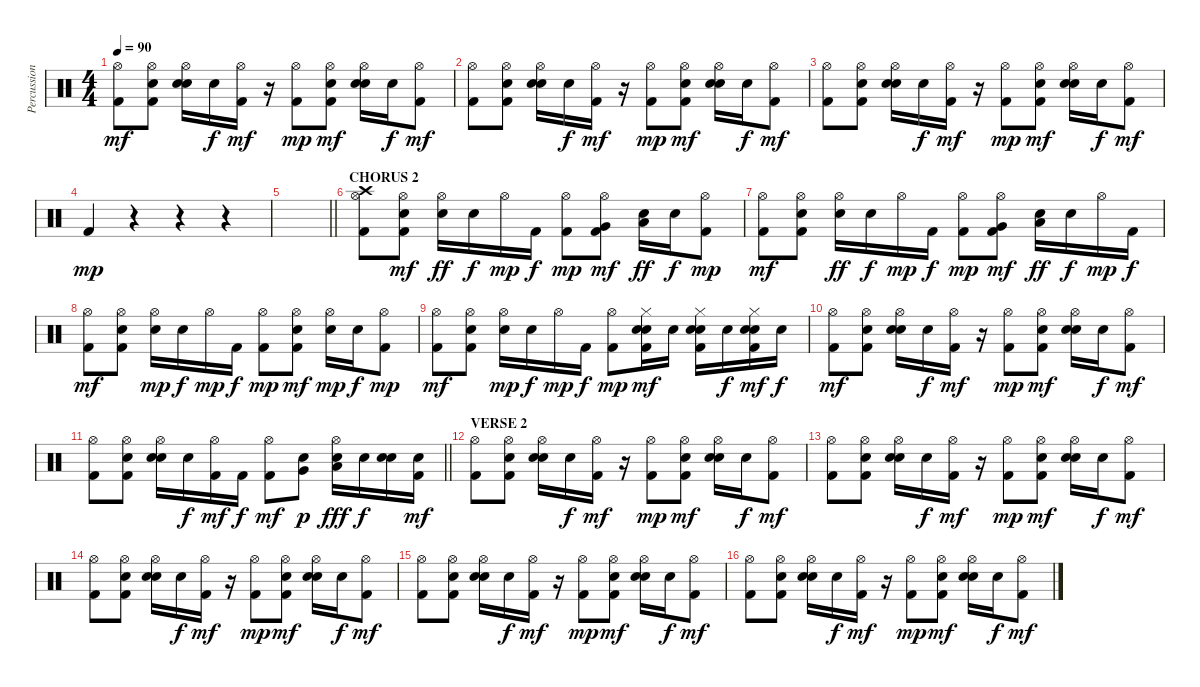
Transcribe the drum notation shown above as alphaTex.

\track ("Percussion" "Percussion") {instrument percussion}
\staff {score}
\articulation defaults
\ts (4 4)
\tempo 90
\clef neutral
\ks c
("Hi-Hat (open)" "Kick (hit) 2").8{dy mf} ("Hi-Hat (open)" "Snare (hit) 2" "Kick (hit) 2").8 ("Hi-Hat (open)" "Electric Snare (hit)" "Snare (hit) 2").16 "Snare (hit) 2".16{dy f} ("Hi-Hat (open)" "Kick (hit) 2").16{dy mf} r.16 ("Hi-Hat (open)" "Kick (hit) 2").8{dy mp} ("Hi-Hat (open)" "Snare (hit) 2" "Kick (hit) 2").8{dy mf} ("Hi-Hat (open)" "Electric Snare (hit)" "Snare (hit) 2").16 "Snare (hit) 2".16{dy f} ("Hi-Hat (open)" "Kick (hit) 2").8{dy mf} |
("Hi-Hat (open)" "Kick (hit) 2").8 ("Hi-Hat (open)" "Snare (hit) 2" "Kick (hit) 2").8 ("Hi-Hat (open)" "Electric Snare (hit)" "Snare (hit) 2").16 "Snare (hit) 2".16{dy f} ("Hi-Hat (open)" "Kick (hit) 2").16{dy mf} r.16 ("Hi-Hat (open)" "Kick (hit) 2").8{dy mp} ("Hi-Hat (open)" "Snare (hit) 2" "Kick (hit) 2").8{dy mf} ("Hi-Hat (open)" "Electric Snare (hit)" "Snare (hit) 2").16 "Snare (hit) 2".16{dy f} ("Hi-Hat (open)" "Kick (hit) 2").8{dy mf} |
("Hi-Hat (open)" "Kick (hit) 2").8 ("Hi-Hat (open)" "Snare (hit) 2" "Kick (hit) 2").8 ("Hi-Hat (open)" "Electric Snare (hit)" "Snare (hit) 2").16 "Snare (hit) 2".16{dy f} ("Hi-Hat (open)" "Kick (hit) 2").16{dy mf} r.16 ("Hi-Hat (open)" "Kick (hit) 2").8{dy mp} ("Hi-Hat (open)" "Snare (hit) 2" "Kick (hit) 2").8{dy mf} ("Hi-Hat (open)" "Electric Snare (hit)" "Snare (hit) 2").16 "Snare (hit) 2".16{dy f} ("Hi-Hat (open)" "Kick (hit) 2").8{dy mf} |
"Kick (hit) 2".4{dy mp} r.4 r.4 r.4 |
\barLineRight lightlight
|
\section ("" "CHORUS 2")
("Hi-Hat (open)" "Crash high (hit)" "Kick (hit) 2").8 ("Hi-Hat (open)" "Snare (hit) 2" "Kick (hit) 2").8{dy mf} ("Hi-Hat (open)" "Snare (hit) 2").16{dy ff} "Snare (hit) 2".16{dy f} "Hi-Hat (open)".16{dy mp} "Kick (hit) 2".16{dy f} ("Hi-Hat (open)" "Kick (hit) 2").8{dy mp} ("Hi-Hat (open)" "Very Low Tom (hit)" "Kick (hit) 2").8{dy mf} ("Low Floor Tom (hit)" "Snare (hit) 2").16{dy ff} "Snare (hit) 2".16{dy f} ("Hi-Hat (open)" "Kick (hit) 2").8{dy mp} |
("Hi-Hat (open)" "Kick (hit) 2").8{dy mf} ("Hi-Hat (open)" "Snare (hit) 2" "Kick (hit) 2").8 ("Hi-Hat (open)" "Snare (hit) 2").16{dy ff} "Snare (hit) 2".16{dy f} "Hi-Hat (open)".16{dy mp} "Kick (hit) 2".16{dy f} ("Hi-Hat (open)" "Kick (hit) 2").8{dy mp} ("Hi-Hat (open)" "Very Low Tom (hit)" "Kick (hit) 2").8{dy mf} ("Low Floor Tom (hit)" "Snare (hit) 2").16{dy ff} "Snare (hit) 2".16{dy f} "Hi-Hat (open)".16{dy mp} "Kick (hit) 2".16{dy f} |
("Hi-Hat (open)" "Kick (hit) 2").8{dy mf} ("Hi-Hat (open)" "Snare (hit) 2" "Kick (hit) 2").8 ("Hi-Hat (open)" "Snare (hit) 2").16{dy mp} "Snare (hit) 2".16{dy f} "Hi-Hat (open)".16{dy mp} "Kick (hit) 2".16{dy f} ("Hi-Hat (open)" "Kick (hit) 2").8{dy mp} ("Hi-Hat (open)" "Snare (hit) 2" "Kick (hit) 2").8{dy mf} ("Hi-Hat (open)" "Snare (hit) 2").16{dy mp} "Snare (hit) 2".16{dy f} ("Hi-Hat (open)" "Kick (hit) 2").8{dy mp} |
("Hi-Hat (open)" "Kick (hit) 2").8{dy mf} ("Hi-Hat (open)" "Snare (hit) 2" "Kick (hit) 2").8 ("Hi-Hat (open)" "Snare (hit) 2").16{dy mp} "Snare (hit) 2".16{dy f} "Hi-Hat (open)".16{dy mp} "Kick (hit) 2".16{dy f} ("Hi-Hat (open)" "Kick (hit) 2").8{dy mp} ("Hi-Hat (closed)" "Electric Snare (hit)" "Snare (hit) 2" "Kick (hit) 2").16{dy mf} "Electric Snare (hit)".16 ("Hi-Hat (closed)" "Electric Snare (hit)" "Snare (hit) 2" "Kick (hit) 2").16 "Electric Snare (hit)".16{dy f} ("Hi-Hat (closed)" "Electric Snare (hit)" "Snare (hit) 2" "Kick (hit) 2").16{dy mf} "Electric Snare (hit)".16{dy f} |
("Hi-Hat (open)" "Kick (hit) 2").8{dy mf} ("Hi-Hat (open)" "Snare (hit) 2" "Kick (hit) 2").8 ("Hi-Hat (open)" "Electric Snare (hit)" "Snare (hit) 2").16 "Snare (hit) 2".16{dy f} ("Hi-Hat (open)" "Kick (hit) 2").16{dy mf} r.16 ("Hi-Hat (open)" "Kick (hit) 2").8{dy mp} ("Hi-Hat (open)" "Snare (hit) 2" "Kick (hit) 2").8{dy mf} ("Hi-Hat (open)" "Electric Snare (hit)" "Snare (hit) 2").16 "Snare (hit) 2".16{dy f} ("Hi-Hat (open)" "Kick (hit) 2").8{dy mf} |
\barLineRight lightlight
("Hi-Hat (open)" "Kick (hit) 2").8 ("Hi-Hat (open)" "Snare (hit) 2" "Kick (hit) 2").8 ("Hi-Hat (open)" "Electric Snare (hit)" "Snare (hit) 2").16 "Snare (hit) 2".16{dy f} ("Hi-Hat (open)" "Kick (hit) 2").16{dy mf} "Kick (hit) 2".16{dy f} ("Hi-Hat (open)" "Kick (hit) 2").8{dy mf} ("Very Low Tom (hit)" "Snare (hit) 2").8{dy p} ("Hi-Hat (open)" "Low Floor Tom (hit)" "Snare (hit) 2").16{dy fff} "Electric Snare (hit)".16{dy f} ("Electric Snare (hit)" "Snare (hit) 2").16 ("Electric Snare (hit)" "Kick (hit) 2").16{dy mf} |
\section ("" "VERSE 2")
("Hi-Hat (open)" "Kick (hit) 2").8 ("Hi-Hat (open)" "Snare (hit) 2" "Kick (hit) 2").8 ("Hi-Hat (open)" "Electric Snare (hit)" "Snare (hit) 2").16 "Snare (hit) 2".16{dy f} ("Hi-Hat (open)" "Kick (hit) 2").16{dy mf} r.16 ("Hi-Hat (open)" "Kick (hit) 2").8{dy mp} ("Hi-Hat (open)" "Snare (hit) 2" "Kick (hit) 2").8{dy mf} ("Hi-Hat (open)" "Electric Snare (hit)" "Snare (hit) 2").16 "Snare (hit) 2".16{dy f} ("Hi-Hat (open)" "Kick (hit) 2").8{dy mf} |
("Hi-Hat (open)" "Kick (hit) 2").8 ("Hi-Hat (open)" "Snare (hit) 2" "Kick (hit) 2").8 ("Hi-Hat (open)" "Electric Snare (hit)" "Snare (hit) 2").16 "Snare (hit) 2".16{dy f} ("Hi-Hat (open)" "Kick (hit) 2").16{dy mf} r.16 ("Hi-Hat (open)" "Kick (hit) 2").8{dy mp} ("Hi-Hat (open)" "Snare (hit) 2" "Kick (hit) 2").8{dy mf} ("Hi-Hat (open)" "Electric Snare (hit)" "Snare (hit) 2").16 "Snare (hit) 2".16{dy f} ("Hi-Hat (open)" "Kick (hit) 2").8{dy mf} |
("Hi-Hat (open)" "Kick (hit) 2").8 ("Hi-Hat (open)" "Snare (hit) 2" "Kick (hit) 2").8 ("Hi-Hat (open)" "Electric Snare (hit)" "Snare (hit) 2").16 "Snare (hit) 2".16{dy f} ("Hi-Hat (open)" "Kick (hit) 2").16{dy mf} r.16 ("Hi-Hat (open)" "Kick (hit) 2").8{dy mp} ("Hi-Hat (open)" "Snare (hit) 2" "Kick (hit) 2").8{dy mf} ("Hi-Hat (open)" "Electric Snare (hit)" "Snare (hit) 2").16 "Snare (hit) 2".16{dy f} ("Hi-Hat (open)" "Kick (hit) 2").8{dy mf} |
("Hi-Hat (open)" "Kick (hit) 2").8 ("Hi-Hat (open)" "Snare (hit) 2" "Kick (hit) 2").8 ("Hi-Hat (open)" "Electric Snare (hit)" "Snare (hit) 2").16 "Snare (hit) 2".16{dy f} ("Hi-Hat (open)" "Kick (hit) 2").16{dy mf} r.16 ("Hi-Hat (open)" "Kick (hit) 2").8{dy mp} ("Hi-Hat (open)" "Snare (hit) 2" "Kick (hit) 2").8{dy mf} ("Hi-Hat (open)" "Electric Snare (hit)" "Snare (hit) 2").16 "Snare (hit) 2".16{dy f} ("Hi-Hat (open)" "Kick (hit) 2").8{dy mf} |
("Hi-Hat (open)" "Kick (hit) 2").8 ("Hi-Hat (open)" "Snare (hit) 2" "Kick (hit) 2").8 ("Hi-Hat (open)" "Electric Snare (hit)" "Snare (hit) 2").16 "Snare (hit) 2".16{dy f} ("Hi-Hat (open)" "Kick (hit) 2").16{dy mf} r.16 ("Hi-Hat (open)" "Kick (hit) 2").8{dy mp} ("Hi-Hat (open)" "Snare (hit) 2" "Kick (hit) 2").8{dy mf} ("Hi-Hat (open)" "Electric Snare (hit)" "Snare (hit) 2").16 "Snare (hit) 2".16{dy f} ("Hi-Hat (open)" "Kick (hit) 2").8{dy mf}
